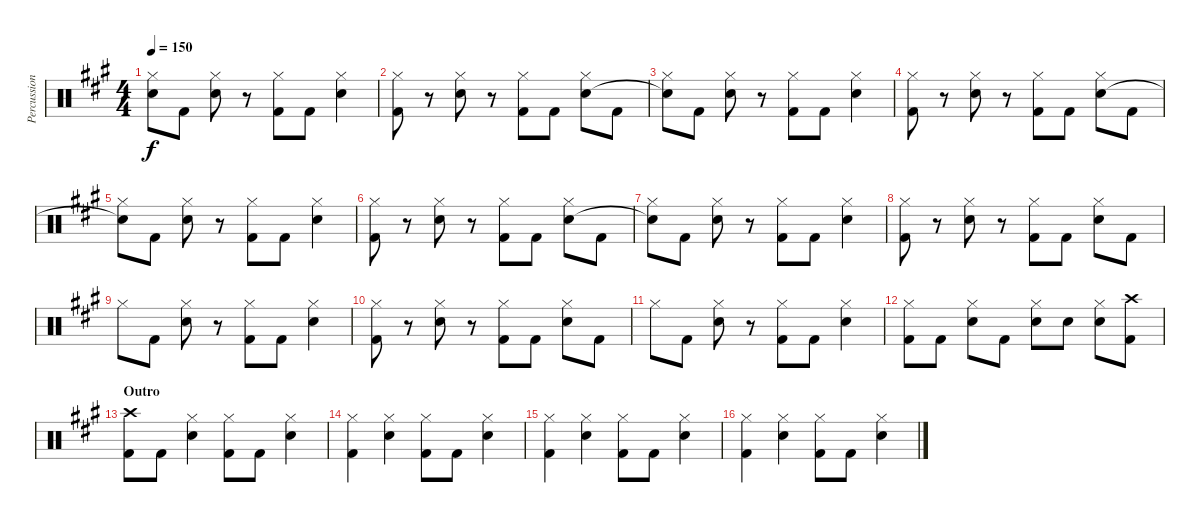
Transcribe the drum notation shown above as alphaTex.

\track ("Percussion" "Percussion") {instrument percussion}
\staff {score}
\articulation defaults
\ts (4 4)
\tempo 150
\clef neutral
\ks f#minor
("Hi-Hat (closed)" "Snare (hit)"{t}).8{dy f} "Kick (hit) 2".8 ("Hi-Hat (closed)" "Snare (hit) 2").8 r.8 ("Hi-Hat (closed)" "Kick (hit) 2").8 "Kick (hit) 2".8 ("Hi-Hat (closed)" "Snare (hit) 2").4 |
("Hi-Hat (closed)" "Kick (hit) 2").8 r.8 ("Hi-Hat (closed)" "Snare (hit) 2").8 r.8 ("Hi-Hat (closed)" "Kick (hit) 2").8 "Kick (hit) 2".8 ("Hi-Hat (closed)" "Snare (hit) 2").8 "Kick (hit) 2".8 |
("Hi-Hat (closed)" "Snare (hit)"{t}).8 "Kick (hit) 2".8 ("Hi-Hat (closed)" "Snare (hit) 2").8 r.8 ("Hi-Hat (closed)" "Kick (hit) 2").8 "Kick (hit) 2".8 ("Hi-Hat (closed)" "Snare (hit) 2").4 |
("Hi-Hat (closed)" "Kick (hit) 2").8 r.8 ("Hi-Hat (closed)" "Snare (hit) 2").8 r.8 ("Hi-Hat (closed)" "Kick (hit) 2").8 "Kick (hit) 2".8 ("Hi-Hat (closed)" "Snare (hit) 2").8 "Kick (hit) 2".8 |
("Hi-Hat (closed)" "Snare (hit)"{t}).8 "Kick (hit) 2".8 ("Hi-Hat (closed)" "Snare (hit) 2").8 r.8 ("Hi-Hat (closed)" "Kick (hit) 2").8 "Kick (hit) 2".8 ("Hi-Hat (closed)" "Snare (hit) 2").4 |
("Hi-Hat (closed)" "Kick (hit) 2").8 r.8 ("Hi-Hat (closed)" "Snare (hit) 2").8 r.8 ("Hi-Hat (closed)" "Kick (hit) 2").8 "Kick (hit) 2".8 ("Hi-Hat (closed)" "Snare (hit) 2").8 "Kick (hit) 2".8 |
("Hi-Hat (closed)" "Snare (hit)"{t}).8 "Kick (hit) 2".8 ("Hi-Hat (closed)" "Snare (hit) 2").8 r.8 ("Hi-Hat (closed)" "Kick (hit) 2").8 "Kick (hit) 2".8 ("Hi-Hat (closed)" "Snare (hit) 2").4 |
("Hi-Hat (closed)" "Kick (hit) 2").8 r.8 ("Hi-Hat (closed)" "Snare (hit) 2").8 r.8 ("Hi-Hat (closed)" "Kick (hit) 2").8 "Kick (hit) 2".8 ("Hi-Hat (closed)" "Snare (hit) 2").8 "Kick (hit) 2".8 |
"Hi-Hat (closed)".8 "Kick (hit) 2".8 ("Hi-Hat (closed)" "Snare (hit) 2").8 r.8 ("Hi-Hat (closed)" "Kick (hit) 2").8 "Kick (hit) 2".8 ("Hi-Hat (closed)" "Snare (hit) 2").4 |
("Hi-Hat (closed)" "Kick (hit) 2").8 r.8 ("Hi-Hat (closed)" "Snare (hit) 2").8 r.8 ("Hi-Hat (closed)" "Kick (hit) 2").8 "Kick (hit) 2".8 ("Hi-Hat (closed)" "Snare (hit) 2").8 "Kick (hit) 2".8 |
"Hi-Hat (closed)".8 "Kick (hit) 2".8 ("Hi-Hat (closed)" "Snare (hit) 2").8 r.8 ("Hi-Hat (closed)" "Kick (hit) 2").8 "Kick (hit) 2".8 ("Hi-Hat (closed)" "Snare (hit) 2").4 |
("Hi-Hat (closed)" "Kick (hit) 2").8 "Kick (hit) 2".8 ("Hi-Hat (closed)" "Snare (hit) 2").8 "Kick (hit) 2".8 ("Hi-Hat (closed)" "Snare (hit) 2").8 "Snare (hit) 2".8 ("Hi-Hat (closed)" "Snare (hit) 2").8 ("Crash high (hit)" "Kick (hit) 2").8 |
\section ("" "Outro")
("Crash high (hit)" "Kick (hit) 2").8 "Kick (hit) 2".8 ("Hi-Hat (closed)" "Snare (hit) 2").4 ("Hi-Hat (closed)" "Kick (hit) 2").8 "Kick (hit) 2".8 ("Hi-Hat (closed)" "Snare (hit) 2").4 |
("Hi-Hat (closed)" "Kick (hit) 2").4 ("Hi-Hat (closed)" "Snare (hit) 2").4 ("Hi-Hat (closed)" "Kick (hit) 2").8 "Kick (hit) 2".8 ("Hi-Hat (closed)" "Snare (hit) 2").4 |
("Hi-Hat (closed)" "Kick (hit) 2").4 ("Hi-Hat (closed)" "Snare (hit) 2").4 ("Hi-Hat (closed)" "Kick (hit) 2").8 "Kick (hit) 2".8 ("Hi-Hat (closed)" "Snare (hit) 2").4 |
("Hi-Hat (closed)" "Kick (hit) 2").4 ("Hi-Hat (closed)" "Snare (hit) 2").4 ("Hi-Hat (closed)" "Kick (hit) 2").8 "Kick (hit) 2".8 ("Hi-Hat (closed)" "Snare (hit) 2").4
